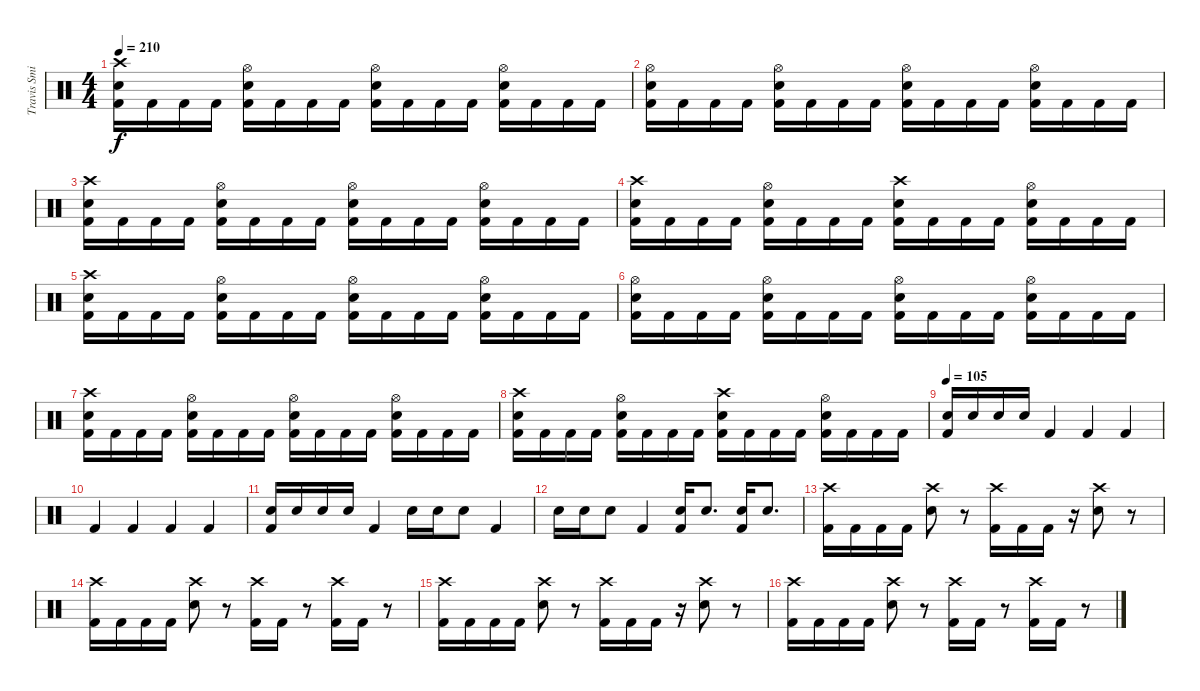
\track ("Travis Smith" "Travis Smi") {instrument percussion}
\staff {score}
\articulation defaults
\ts (4 4)
\tempo 210
\clef neutral
\ks c
("Crash high (hit)" "Snare (hit) 2" "Kick (hit) 2").16{dy f} "Kick (hit) 2".16 "Kick (hit) 2".16 "Kick (hit) 2".16 ("Hi-Hat (open)" "Snare (hit) 2" "Kick (hit) 2").16 "Kick (hit) 2".16 "Kick (hit) 2".16 "Kick (hit) 2".16 ("Hi-Hat (open)" "Snare (hit) 2" "Kick (hit) 2").16 "Kick (hit) 2".16 "Kick (hit) 2".16 "Kick (hit) 2".16 ("Hi-Hat (open)" "Snare (hit) 2" "Kick (hit) 2").16 "Kick (hit) 2".16 "Kick (hit) 2".16 "Kick (hit) 2".16 |
("Hi-Hat (open)" "Snare (hit) 2" "Kick (hit) 2").16 "Kick (hit) 2".16 "Kick (hit) 2".16 "Kick (hit) 2".16 ("Hi-Hat (open)" "Snare (hit) 2" "Kick (hit) 2").16 "Kick (hit) 2".16 "Kick (hit) 2".16 "Kick (hit) 2".16 ("Hi-Hat (open)" "Snare (hit) 2" "Kick (hit) 2").16 "Kick (hit) 2".16 "Kick (hit) 2".16 "Kick (hit) 2".16 ("Hi-Hat (open)" "Snare (hit) 2" "Kick (hit) 2").16 "Kick (hit) 2".16 "Kick (hit) 2".16 "Kick (hit) 2".16 |
("Crash high (hit)" "Snare (hit) 2" "Kick (hit) 2").16 "Kick (hit) 2".16 "Kick (hit) 2".16 "Kick (hit) 2".16 ("Hi-Hat (open)" "Snare (hit) 2" "Kick (hit) 2").16 "Kick (hit) 2".16 "Kick (hit) 2".16 "Kick (hit) 2".16 ("Hi-Hat (open)" "Snare (hit) 2" "Kick (hit) 2").16 "Kick (hit) 2".16 "Kick (hit) 2".16 "Kick (hit) 2".16 ("Hi-Hat (open)" "Snare (hit) 2" "Kick (hit) 2").16 "Kick (hit) 2".16 "Kick (hit) 2".16 "Kick (hit) 2".16 |
("Crash high (hit)" "Snare (hit) 2" "Kick (hit) 2").16 "Kick (hit) 2".16 "Kick (hit) 2".16 "Kick (hit) 2".16 ("Hi-Hat (open)" "Snare (hit) 2" "Kick (hit) 2").16 "Kick (hit) 2".16 "Kick (hit) 2".16 "Kick (hit) 2".16 ("Crash high (hit)" "Snare (hit) 2" "Kick (hit) 2").16 "Kick (hit) 2".16 "Kick (hit) 2".16 "Kick (hit) 2".16 ("Hi-Hat (open)" "Snare (hit) 2" "Kick (hit) 2").16 "Kick (hit) 2".16 "Kick (hit) 2".16 "Kick (hit) 2".16 |
("Crash high (hit)" "Snare (hit) 2" "Kick (hit) 2").16 "Kick (hit) 2".16 "Kick (hit) 2".16 "Kick (hit) 2".16 ("Hi-Hat (open)" "Snare (hit) 2" "Kick (hit) 2").16 "Kick (hit) 2".16 "Kick (hit) 2".16 "Kick (hit) 2".16 ("Hi-Hat (open)" "Snare (hit) 2" "Kick (hit) 2").16 "Kick (hit) 2".16 "Kick (hit) 2".16 "Kick (hit) 2".16 ("Hi-Hat (open)" "Snare (hit) 2" "Kick (hit) 2").16 "Kick (hit) 2".16 "Kick (hit) 2".16 "Kick (hit) 2".16 |
("Hi-Hat (open)" "Snare (hit) 2" "Kick (hit) 2").16 "Kick (hit) 2".16 "Kick (hit) 2".16 "Kick (hit) 2".16 ("Hi-Hat (open)" "Snare (hit) 2" "Kick (hit) 2").16 "Kick (hit) 2".16 "Kick (hit) 2".16 "Kick (hit) 2".16 ("Hi-Hat (open)" "Snare (hit) 2" "Kick (hit) 2").16 "Kick (hit) 2".16 "Kick (hit) 2".16 "Kick (hit) 2".16 ("Hi-Hat (open)" "Snare (hit) 2" "Kick (hit) 2").16 "Kick (hit) 2".16 "Kick (hit) 2".16 "Kick (hit) 2".16 |
("Crash high (hit)" "Snare (hit) 2" "Kick (hit) 2").16 "Kick (hit) 2".16 "Kick (hit) 2".16 "Kick (hit) 2".16 ("Hi-Hat (open)" "Snare (hit) 2" "Kick (hit) 2").16 "Kick (hit) 2".16 "Kick (hit) 2".16 "Kick (hit) 2".16 ("Hi-Hat (open)" "Snare (hit) 2" "Kick (hit) 2").16 "Kick (hit) 2".16 "Kick (hit) 2".16 "Kick (hit) 2".16 ("Hi-Hat (open)" "Snare (hit) 2" "Kick (hit) 2").16 "Kick (hit) 2".16 "Kick (hit) 2".16 "Kick (hit) 2".16 |
("Crash high (hit)" "Snare (hit) 2" "Kick (hit) 2").16 "Kick (hit) 2".16 "Kick (hit) 2".16 "Kick (hit) 2".16 ("Hi-Hat (open)" "Snare (hit) 2" "Kick (hit) 2").16 "Kick (hit) 2".16 "Kick (hit) 2".16 "Kick (hit) 2".16 ("Crash high (hit)" "Snare (hit) 2" "Kick (hit) 2").16 "Kick (hit) 2".16 "Kick (hit) 2".16 "Kick (hit) 2".16 ("Hi-Hat (open)" "Snare (hit) 2" "Kick (hit) 2").16 "Kick (hit) 2".16 "Kick (hit) 2".16 "Kick (hit) 2".16 |
\tempo 105
("Snare (hit) 2" "Kick (hit) 2").16 "Snare (hit) 2".16 "Snare (hit) 2".16 "Snare (hit) 2".16 "Kick (hit) 2".4 "Kick (hit) 2".4 "Kick (hit) 2".4 |
"Kick (hit) 2".4 "Kick (hit) 2".4 "Kick (hit) 2".4 "Kick (hit) 2".4 |
("Snare (hit) 2" "Kick (hit) 2").16 "Snare (hit) 2".16 "Snare (hit) 2".16 "Snare (hit) 2".16 "Kick (hit) 2".4 "Snare (hit) 2".16 "Snare (hit) 2".16 "Snare (hit) 2".8 "Kick (hit) 2".4 |
"Snare (hit) 2".16 "Snare (hit) 2".16 "Snare (hit) 2".8 "Kick (hit) 2".4 ("Snare (hit) 2" "Kick (hit) 2").16 "Snare (hit) 2".8{d} ("Snare (hit) 2" "Kick (hit) 2").16 "Snare (hit) 2".8{d} |
("Crash high (hit)" "Kick (hit) 2").16 "Kick (hit) 2".16 "Kick (hit) 2".16 "Kick (hit) 2".16 ("Crash high (hit)" "Snare (hit) 2").8 r.8 ("Crash high (hit)" "Kick (hit) 2").16 "Kick (hit) 2".16 "Kick (hit) 2".16 r.16 ("Crash high (hit)" "Snare (hit) 2").8 r.8 |
("Crash high (hit)" "Kick (hit) 2").16 "Kick (hit) 2".16 "Kick (hit) 2".16 "Kick (hit) 2".16 ("Crash high (hit)" "Snare (hit) 2").8 r.8 ("Crash high (hit)" "Kick (hit) 2").16 "Kick (hit) 2".16 r.8 ("Crash high (hit)" "Kick (hit) 2").16 "Kick (hit) 2".16 r.8 |
("Crash high (hit)" "Kick (hit) 2").16 "Kick (hit) 2".16 "Kick (hit) 2".16 "Kick (hit) 2".16 ("Crash high (hit)" "Snare (hit) 2").8 r.8 ("Crash high (hit)" "Kick (hit) 2").16 "Kick (hit) 2".16 "Kick (hit) 2".16 r.16 ("Crash high (hit)" "Snare (hit) 2").8 r.8 |
("Crash high (hit)" "Kick (hit) 2").16 "Kick (hit) 2".16 "Kick (hit) 2".16 "Kick (hit) 2".16 ("Crash high (hit)" "Snare (hit) 2").8 r.8 ("Crash high (hit)" "Kick (hit) 2").16 "Kick (hit) 2".16 r.8 ("Crash high (hit)" "Kick (hit) 2").16 "Kick (hit) 2".16 r.8
